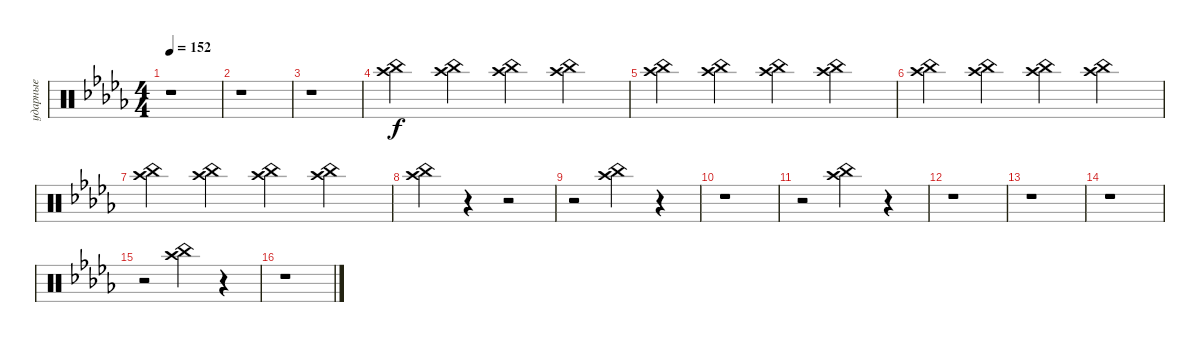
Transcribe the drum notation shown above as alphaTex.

\track ("ударные" "ударные") {instrument percussion}
\staff {score}
\articulation defaults
\ts (4 4)
\tempo 152
\clef neutral
\ks bbminor
r.1{dy f} |
r.1 |
r.1 |
("China (hit)" "Crash high (hit)").4 ("China (hit)" "Crash high (hit)").4 ("China (hit)" "Crash high (hit)").4 ("China (hit)" "Crash high (hit)").4 |
("China (hit)" "Crash high (hit)").4 ("China (hit)" "Crash high (hit)").4 ("China (hit)" "Crash high (hit)").4 ("China (hit)" "Crash high (hit)").4 |
("China (hit)" "Crash high (hit)").4 ("China (hit)" "Crash high (hit)").4 ("China (hit)" "Crash high (hit)").4 ("China (hit)" "Crash high (hit)").4 |
("China (hit)" "Crash high (hit)").4 ("China (hit)" "Crash high (hit)").4 ("China (hit)" "Crash high (hit)").4 ("China (hit)" "Crash high (hit)").4 |
("China (hit)" "Crash high (hit)").4 r.4 r.2 |
r.2 ("China (hit)" "Crash high (hit)").4 r.4 |
r.1 |
r.2 ("China (hit)" "Crash high (hit)").4 r.4 |
r.1 |
r.1 |
r.1 |
r.2 ("China (hit)" "Crash high (hit)").4 r.4 |
r.1
